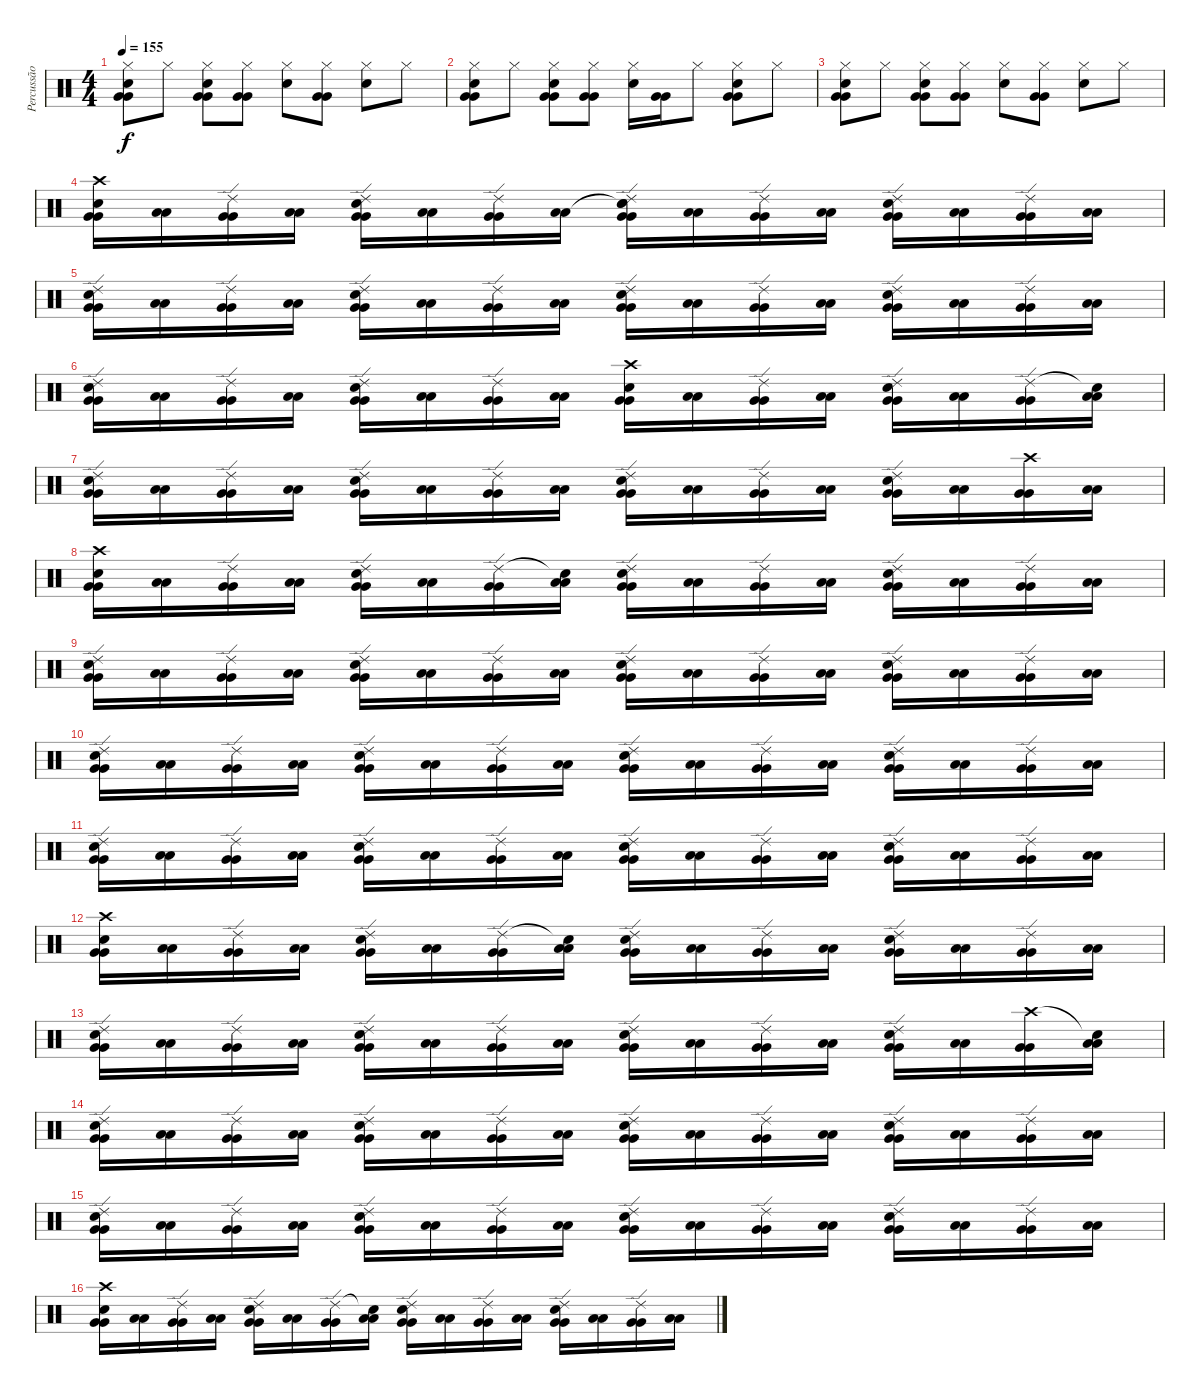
\track ("Percussão" "Percussão") {instrument percussion}
\staff {score}
\articulation defaults
\ts (4 4)
\tempo 155
\clef neutral
\ks c
("Hi-Hat (closed)" "Electric Snare (hit)" "Very Low Tom (hit)" "Very Low Tom (hit)").8{dy f} "Hi-Hat (closed)".8 ("Hi-Hat (closed)" "Electric Snare (hit)" "Very Low Tom (hit)" "Very Low Tom (hit)").8 ("Hi-Hat (closed)" "Very Low Tom (hit)" "Very Low Tom (hit)").8 ("Hi-Hat (closed)" "Electric Snare (hit)").8 ("Hi-Hat (closed)" "Very Low Tom (hit)" "Very Low Tom (hit)").8 ("Hi-Hat (closed)" "Electric Snare (hit)").8 "Hi-Hat (closed)".8 |
("Hi-Hat (closed)" "Electric Snare (hit)" "Very Low Tom (hit)" "Very Low Tom (hit)").8 "Hi-Hat (closed)".8 ("Hi-Hat (closed)" "Electric Snare (hit)" "Very Low Tom (hit)" "Very Low Tom (hit)").8 ("Hi-Hat (closed)" "Very Low Tom (hit)" "Very Low Tom (hit)").8 ("Hi-Hat (closed)" "Electric Snare (hit)").16 ("Very Low Tom (hit)" "Very Low Tom (hit)").16 "Hi-Hat (closed)".8 ("Hi-Hat (closed)" "Electric Snare (hit)" "Very Low Tom (hit)" "Very Low Tom (hit)").8 "Hi-Hat (closed)".8 |
("Hi-Hat (closed)" "Electric Snare (hit)" "Very Low Tom (hit)" "Very Low Tom (hit)").8 "Hi-Hat (closed)".8 ("Hi-Hat (closed)" "Electric Snare (hit)" "Very Low Tom (hit)" "Very Low Tom (hit)").8 ("Hi-Hat (closed)" "Very Low Tom (hit)" "Very Low Tom (hit)").8 ("Hi-Hat (closed)" "Electric Snare (hit)").8 ("Hi-Hat (closed)" "Very Low Tom (hit)" "Very Low Tom (hit)").8 ("Hi-Hat (closed)" "Electric Snare (hit)").8 "Hi-Hat (closed)".8 |
("Crash high (hit)" "Electric Snare (hit)" "Very Low Tom (hit)" "Very Low Tom (hit)").16 ("Low Floor Tom (hit)" "Low Floor Tom (hit)").16 ("Ride (edge) 2" "Very Low Tom (hit)" "Very Low Tom (hit)").16 ("Low Floor Tom (hit)" "Low Floor Tom (hit)").16 ("Ride (edge) 2" "Electric Snare (hit)" "Very Low Tom (hit)" "Very Low Tom (hit)").16 ("Low Floor Tom (hit)" "Low Floor Tom (hit)").16 ("Ride (edge) 2" "Very Low Tom (hit)" "Very Low Tom (hit)").16 ("Low Floor Tom (hit)" "Low Floor Tom (hit)").16 ("Snare (hit)"{t} "Ride (edge) 2" "Electric Snare (hit)" "Very Low Tom (hit)" "Very Low Tom (hit)").16 ("Low Floor Tom (hit)" "Low Floor Tom (hit)").16 ("Ride (edge) 2" "Very Low Tom (hit)" "Very Low Tom (hit)").16 ("Low Floor Tom (hit)" "Low Floor Tom (hit)").16 ("Ride (edge) 2" "Electric Snare (hit)" "Very Low Tom (hit)" "Very Low Tom (hit)").16 ("Low Floor Tom (hit)" "Low Floor Tom (hit)").16 ("Ride (edge) 2" "Very Low Tom (hit)" "Very Low Tom (hit)").16 ("Low Floor Tom (hit)" "Low Floor Tom (hit)").16 |
("Ride (edge) 2" "Electric Snare (hit)" "Very Low Tom (hit)" "Very Low Tom (hit)").16 ("Low Floor Tom (hit)" "Low Floor Tom (hit)").16 ("Ride (edge) 2" "Very Low Tom (hit)" "Very Low Tom (hit)").16 ("Low Floor Tom (hit)" "Low Floor Tom (hit)").16 ("Ride (edge) 2" "Electric Snare (hit)" "Very Low Tom (hit)" "Very Low Tom (hit)").16 ("Low Floor Tom (hit)" "Low Floor Tom (hit)").16 ("Ride (edge) 2" "Very Low Tom (hit)" "Very Low Tom (hit)").16 ("Low Floor Tom (hit)" "Low Floor Tom (hit)").16 ("Ride (edge) 2" "Electric Snare (hit)" "Very Low Tom (hit)" "Very Low Tom (hit)").16 ("Low Floor Tom (hit)" "Low Floor Tom (hit)").16 ("Ride (edge) 2" "Very Low Tom (hit)" "Very Low Tom (hit)").16 ("Low Floor Tom (hit)" "Low Floor Tom (hit)").16 ("Ride (edge) 2" "Electric Snare (hit)" "Very Low Tom (hit)" "Very Low Tom (hit)").16 ("Low Floor Tom (hit)" "Low Floor Tom (hit)").16 ("Ride (edge) 2" "Very Low Tom (hit)" "Very Low Tom (hit)").16 ("Low Floor Tom (hit)" "Low Floor Tom (hit)").16 |
("Ride (edge) 2" "Electric Snare (hit)" "Very Low Tom (hit)" "Very Low Tom (hit)").16 ("Low Floor Tom (hit)" "Low Floor Tom (hit)").16 ("Ride (edge) 2" "Very Low Tom (hit)" "Very Low Tom (hit)").16 ("Low Floor Tom (hit)" "Low Floor Tom (hit)").16 ("Ride (edge) 2" "Electric Snare (hit)" "Very Low Tom (hit)" "Very Low Tom (hit)").16 ("Low Floor Tom (hit)" "Low Floor Tom (hit)").16 ("Ride (edge) 2" "Very Low Tom (hit)" "Very Low Tom (hit)").16 ("Low Floor Tom (hit)" "Low Floor Tom (hit)").16 ("Crash high (hit)" "Electric Snare (hit)" "Very Low Tom (hit)" "Very Low Tom (hit)").16 ("Low Floor Tom (hit)" "Low Floor Tom (hit)").16 ("Ride (edge) 2" "Very Low Tom (hit)" "Very Low Tom (hit)").16 ("Low Floor Tom (hit)" "Low Floor Tom (hit)").16 ("Ride (edge) 2" "Electric Snare (hit)" "Very Low Tom (hit)" "Very Low Tom (hit)").16 ("Low Floor Tom (hit)" "Low Floor Tom (hit)").16 ("Ride (edge) 2" "Very Low Tom (hit)" "Very Low Tom (hit)").16 ("Snare (hit)"{t} "Low Floor Tom (hit)" "Low Floor Tom (hit)").16 |
("Ride (edge) 2" "Electric Snare (hit)" "Very Low Tom (hit)" "Very Low Tom (hit)").16 ("Low Floor Tom (hit)" "Low Floor Tom (hit)").16 ("Ride (edge) 2" "Very Low Tom (hit)" "Very Low Tom (hit)").16 ("Low Floor Tom (hit)" "Low Floor Tom (hit)").16 ("Ride (edge) 2" "Electric Snare (hit)" "Very Low Tom (hit)" "Very Low Tom (hit)").16 ("Low Floor Tom (hit)" "Low Floor Tom (hit)").16 ("Ride (edge) 2" "Very Low Tom (hit)" "Very Low Tom (hit)").16 ("Low Floor Tom (hit)" "Low Floor Tom (hit)").16 ("Ride (edge) 2" "Electric Snare (hit)" "Very Low Tom (hit)" "Very Low Tom (hit)").16 ("Low Floor Tom (hit)" "Low Floor Tom (hit)").16 ("Ride (edge) 2" "Very Low Tom (hit)" "Very Low Tom (hit)").16 ("Low Floor Tom (hit)" "Low Floor Tom (hit)").16 ("Ride (edge) 2" "Electric Snare (hit)" "Very Low Tom (hit)" "Very Low Tom (hit)").16 ("Low Floor Tom (hit)" "Low Floor Tom (hit)").16 ("Crash high (hit)" "Very Low Tom (hit)" "Very Low Tom (hit)").16 ("Low Floor Tom (hit)" "Low Floor Tom (hit)").16 |
("Crash high (hit)" "Electric Snare (hit)" "Very Low Tom (hit)" "Very Low Tom (hit)").16 ("Low Floor Tom (hit)" "Low Floor Tom (hit)").16 ("Ride (edge) 2" "Very Low Tom (hit)" "Very Low Tom (hit)").16 ("Low Floor Tom (hit)" "Low Floor Tom (hit)").16 ("Ride (edge) 2" "Electric Snare (hit)" "Very Low Tom (hit)" "Very Low Tom (hit)").16 ("Low Floor Tom (hit)" "Low Floor Tom (hit)").16 ("Ride (edge) 2" "Very Low Tom (hit)" "Very Low Tom (hit)").16 ("Snare (hit)"{t} "Low Floor Tom (hit)" "Low Floor Tom (hit)").16 ("Ride (edge) 2" "Electric Snare (hit)" "Very Low Tom (hit)" "Very Low Tom (hit)").16 ("Low Floor Tom (hit)" "Low Floor Tom (hit)").16 ("Ride (edge) 2" "Very Low Tom (hit)" "Very Low Tom (hit)").16 ("Low Floor Tom (hit)" "Low Floor Tom (hit)").16 ("Ride (edge) 2" "Electric Snare (hit)" "Very Low Tom (hit)" "Very Low Tom (hit)").16 ("Low Floor Tom (hit)" "Low Floor Tom (hit)").16 ("Ride (edge) 2" "Very Low Tom (hit)" "Very Low Tom (hit)").16 ("Low Floor Tom (hit)" "Low Floor Tom (hit)").16 |
("Ride (edge) 2" "Electric Snare (hit)" "Very Low Tom (hit)" "Very Low Tom (hit)").16 ("Low Floor Tom (hit)" "Low Floor Tom (hit)").16 ("Ride (edge) 2" "Very Low Tom (hit)" "Very Low Tom (hit)").16 ("Low Floor Tom (hit)" "Low Floor Tom (hit)").16 ("Ride (edge) 2" "Electric Snare (hit)" "Very Low Tom (hit)" "Very Low Tom (hit)").16 ("Low Floor Tom (hit)" "Low Floor Tom (hit)").16 ("Ride (edge) 2" "Very Low Tom (hit)" "Very Low Tom (hit)").16 ("Low Floor Tom (hit)" "Low Floor Tom (hit)").16 ("Ride (edge) 2" "Electric Snare (hit)" "Very Low Tom (hit)" "Very Low Tom (hit)").16 ("Low Floor Tom (hit)" "Low Floor Tom (hit)").16 ("Ride (edge) 2" "Very Low Tom (hit)" "Very Low Tom (hit)").16 ("Low Floor Tom (hit)" "Low Floor Tom (hit)").16 ("Ride (edge) 2" "Electric Snare (hit)" "Very Low Tom (hit)" "Very Low Tom (hit)").16 ("Low Floor Tom (hit)" "Low Floor Tom (hit)").16 ("Ride (edge) 2" "Very Low Tom (hit)" "Very Low Tom (hit)").16 ("Low Floor Tom (hit)" "Low Floor Tom (hit)").16 |
("Ride (edge) 2" "Electric Snare (hit)" "Very Low Tom (hit)" "Very Low Tom (hit)").16 ("Low Floor Tom (hit)" "Low Floor Tom (hit)").16 ("Ride (edge) 2" "Very Low Tom (hit)" "Very Low Tom (hit)").16 ("Low Floor Tom (hit)" "Low Floor Tom (hit)").16 ("Ride (edge) 2" "Electric Snare (hit)" "Very Low Tom (hit)" "Very Low Tom (hit)").16 ("Low Floor Tom (hit)" "Low Floor Tom (hit)").16 ("Ride (edge) 2" "Very Low Tom (hit)" "Very Low Tom (hit)").16 ("Low Floor Tom (hit)" "Low Floor Tom (hit)").16 ("Ride (edge) 2" "Electric Snare (hit)" "Very Low Tom (hit)" "Very Low Tom (hit)").16 ("Low Floor Tom (hit)" "Low Floor Tom (hit)").16 ("Ride (edge) 2" "Very Low Tom (hit)" "Very Low Tom (hit)").16 ("Low Floor Tom (hit)" "Low Floor Tom (hit)").16 ("Ride (edge) 2" "Electric Snare (hit)" "Very Low Tom (hit)" "Very Low Tom (hit)").16 ("Low Floor Tom (hit)" "Low Floor Tom (hit)").16 ("Ride (edge) 2" "Very Low Tom (hit)" "Very Low Tom (hit)").16 ("Low Floor Tom (hit)" "Low Floor Tom (hit)").16 |
("Ride (edge) 2" "Electric Snare (hit)" "Very Low Tom (hit)" "Very Low Tom (hit)").16 ("Low Floor Tom (hit)" "Low Floor Tom (hit)").16 ("Ride (edge) 2" "Very Low Tom (hit)" "Very Low Tom (hit)").16 ("Low Floor Tom (hit)" "Low Floor Tom (hit)").16 ("Ride (edge) 2" "Electric Snare (hit)" "Very Low Tom (hit)" "Very Low Tom (hit)").16 ("Low Floor Tom (hit)" "Low Floor Tom (hit)").16 ("Ride (edge) 2" "Very Low Tom (hit)" "Very Low Tom (hit)").16 ("Low Floor Tom (hit)" "Low Floor Tom (hit)").16 ("Ride (edge) 2" "Electric Snare (hit)" "Very Low Tom (hit)" "Very Low Tom (hit)").16 ("Low Floor Tom (hit)" "Low Floor Tom (hit)").16 ("Ride (edge) 2" "Very Low Tom (hit)" "Very Low Tom (hit)").16 ("Low Floor Tom (hit)" "Low Floor Tom (hit)").16 ("Ride (edge) 2" "Electric Snare (hit)" "Very Low Tom (hit)" "Very Low Tom (hit)").16 ("Low Floor Tom (hit)" "Low Floor Tom (hit)").16 ("Ride (edge) 2" "Very Low Tom (hit)" "Very Low Tom (hit)").16 ("Low Floor Tom (hit)" "Low Floor Tom (hit)").16 |
("Crash high (hit)" "Electric Snare (hit)" "Very Low Tom (hit)" "Very Low Tom (hit)").16 ("Low Floor Tom (hit)" "Low Floor Tom (hit)").16 ("Ride (edge) 2" "Very Low Tom (hit)" "Very Low Tom (hit)").16 ("Low Floor Tom (hit)" "Low Floor Tom (hit)").16 ("Ride (edge) 2" "Electric Snare (hit)" "Very Low Tom (hit)" "Very Low Tom (hit)").16 ("Low Floor Tom (hit)" "Low Floor Tom (hit)").16 ("Ride (edge) 2" "Very Low Tom (hit)" "Very Low Tom (hit)").16 ("Snare (hit)"{t} "Low Floor Tom (hit)" "Low Floor Tom (hit)").16 ("Ride (edge) 2" "Electric Snare (hit)" "Very Low Tom (hit)" "Very Low Tom (hit)").16 ("Low Floor Tom (hit)" "Low Floor Tom (hit)").16 ("Ride (edge) 2" "Very Low Tom (hit)" "Very Low Tom (hit)").16 ("Low Floor Tom (hit)" "Low Floor Tom (hit)").16 ("Ride (edge) 2" "Electric Snare (hit)" "Very Low Tom (hit)" "Very Low Tom (hit)").16 ("Low Floor Tom (hit)" "Low Floor Tom (hit)").16 ("Ride (edge) 2" "Very Low Tom (hit)" "Very Low Tom (hit)").16 ("Low Floor Tom (hit)" "Low Floor Tom (hit)").16 |
("Ride (edge) 2" "Electric Snare (hit)" "Very Low Tom (hit)" "Very Low Tom (hit)").16 ("Low Floor Tom (hit)" "Low Floor Tom (hit)").16 ("Ride (edge) 2" "Very Low Tom (hit)" "Very Low Tom (hit)").16 ("Low Floor Tom (hit)" "Low Floor Tom (hit)").16 ("Ride (edge) 2" "Electric Snare (hit)" "Very Low Tom (hit)" "Very Low Tom (hit)").16 ("Low Floor Tom (hit)" "Low Floor Tom (hit)").16 ("Ride (edge) 2" "Very Low Tom (hit)" "Very Low Tom (hit)").16 ("Low Floor Tom (hit)" "Low Floor Tom (hit)").16 ("Ride (edge) 2" "Electric Snare (hit)" "Very Low Tom (hit)" "Very Low Tom (hit)").16 ("Low Floor Tom (hit)" "Low Floor Tom (hit)").16 ("Ride (edge) 2" "Very Low Tom (hit)" "Very Low Tom (hit)").16 ("Low Floor Tom (hit)" "Low Floor Tom (hit)").16 ("Ride (edge) 2" "Electric Snare (hit)" "Very Low Tom (hit)" "Very Low Tom (hit)").16 ("Low Floor Tom (hit)" "Low Floor Tom (hit)").16 ("Crash high (hit)" "Very Low Tom (hit)" "Very Low Tom (hit)").16 ("Snare (hit)"{t} "Low Floor Tom (hit)" "Low Floor Tom (hit)").16 |
("Ride (edge) 2" "Electric Snare (hit)" "Very Low Tom (hit)" "Very Low Tom (hit)").16 ("Low Floor Tom (hit)" "Low Floor Tom (hit)").16 ("Ride (edge) 2" "Very Low Tom (hit)" "Very Low Tom (hit)").16 ("Low Floor Tom (hit)" "Low Floor Tom (hit)").16 ("Ride (edge) 2" "Electric Snare (hit)" "Very Low Tom (hit)" "Very Low Tom (hit)").16 ("Low Floor Tom (hit)" "Low Floor Tom (hit)").16 ("Ride (edge) 2" "Very Low Tom (hit)" "Very Low Tom (hit)").16 ("Low Floor Tom (hit)" "Low Floor Tom (hit)").16 ("Ride (edge) 2" "Electric Snare (hit)" "Very Low Tom (hit)" "Very Low Tom (hit)").16 ("Low Floor Tom (hit)" "Low Floor Tom (hit)").16 ("Ride (edge) 2" "Very Low Tom (hit)" "Very Low Tom (hit)").16 ("Low Floor Tom (hit)" "Low Floor Tom (hit)").16 ("Ride (edge) 2" "Electric Snare (hit)" "Very Low Tom (hit)" "Very Low Tom (hit)").16 ("Low Floor Tom (hit)" "Low Floor Tom (hit)").16 ("Ride (edge) 2" "Very Low Tom (hit)" "Very Low Tom (hit)").16 ("Low Floor Tom (hit)" "Low Floor Tom (hit)").16 |
("Ride (edge) 2" "Electric Snare (hit)" "Very Low Tom (hit)" "Very Low Tom (hit)").16 ("Low Floor Tom (hit)" "Low Floor Tom (hit)").16 ("Ride (edge) 2" "Very Low Tom (hit)" "Very Low Tom (hit)").16 ("Low Floor Tom (hit)" "Low Floor Tom (hit)").16 ("Ride (edge) 2" "Electric Snare (hit)" "Very Low Tom (hit)" "Very Low Tom (hit)").16 ("Low Floor Tom (hit)" "Low Floor Tom (hit)").16 ("Ride (edge) 2" "Very Low Tom (hit)" "Very Low Tom (hit)").16 ("Low Floor Tom (hit)" "Low Floor Tom (hit)").16 ("Ride (edge) 2" "Electric Snare (hit)" "Very Low Tom (hit)" "Very Low Tom (hit)").16 ("Low Floor Tom (hit)" "Low Floor Tom (hit)").16 ("Ride (edge) 2" "Very Low Tom (hit)" "Very Low Tom (hit)").16 ("Low Floor Tom (hit)" "Low Floor Tom (hit)").16 ("Ride (edge) 2" "Electric Snare (hit)" "Very Low Tom (hit)" "Very Low Tom (hit)").16 ("Low Floor Tom (hit)" "Low Floor Tom (hit)").16 ("Ride (edge) 2" "Very Low Tom (hit)" "Very Low Tom (hit)").16 ("Low Floor Tom (hit)" "Low Floor Tom (hit)").16 |
("Crash high (hit)" "Electric Snare (hit)" "Very Low Tom (hit)" "Very Low Tom (hit)").16 ("Low Floor Tom (hit)" "Low Floor Tom (hit)").16 ("Ride (edge) 2" "Very Low Tom (hit)" "Very Low Tom (hit)").16 ("Low Floor Tom (hit)" "Low Floor Tom (hit)").16 ("Ride (edge) 2" "Electric Snare (hit)" "Very Low Tom (hit)" "Very Low Tom (hit)").16 ("Low Floor Tom (hit)" "Low Floor Tom (hit)").16 ("Ride (edge) 2" "Very Low Tom (hit)" "Very Low Tom (hit)").16 ("Snare (hit)"{t} "Low Floor Tom (hit)" "Low Floor Tom (hit)").16 ("Ride (edge) 2" "Electric Snare (hit)" "Very Low Tom (hit)" "Very Low Tom (hit)").16 ("Low Floor Tom (hit)" "Low Floor Tom (hit)").16 ("Ride (edge) 2" "Very Low Tom (hit)" "Very Low Tom (hit)").16 ("Low Floor Tom (hit)" "Low Floor Tom (hit)").16 ("Ride (edge) 2" "Electric Snare (hit)" "Very Low Tom (hit)" "Very Low Tom (hit)").16 ("Low Floor Tom (hit)" "Low Floor Tom (hit)").16 ("Ride (edge) 2" "Very Low Tom (hit)" "Very Low Tom (hit)").16 ("Low Floor Tom (hit)" "Low Floor Tom (hit)").16
